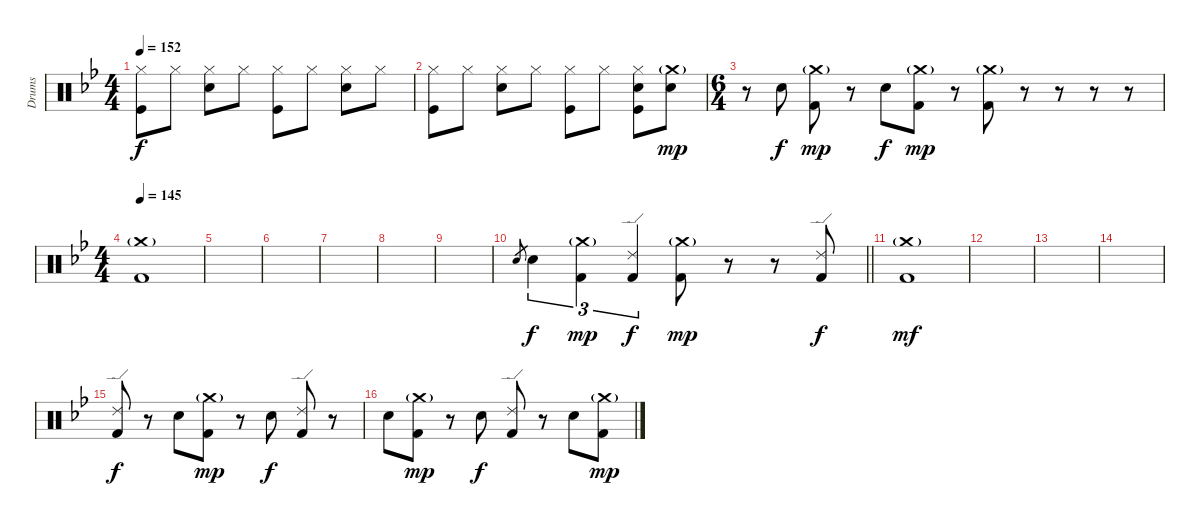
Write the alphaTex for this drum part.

\track ("Drums" "Drums") {instrument percussion}
\staff {score}
\articulation defaults
\ts (4 4)
\tempo 152
\clef neutral
\ks bb
("Hi-Hat (closed)" "Kick (hit)").8{dy f} "Hi-Hat (closed)".8 ("Hi-Hat (closed)" "Electric Snare (hit)").8 "Hi-Hat (closed)".8 ("Hi-Hat (closed)" "Kick (hit)").8 "Hi-Hat (closed)".8 ("Hi-Hat (closed)" "Electric Snare (hit)").8 "Hi-Hat (closed)".8 |
("Hi-Hat (closed)" "Kick (hit)").8 "Hi-Hat (closed)".8 ("Hi-Hat (closed)" "Electric Snare (hit)").8 "Hi-Hat (closed)".8 ("Hi-Hat (closed)" "Kick (hit)").8 "Hi-Hat (closed)".8 ("Hi-Hat (closed)" "Kick (hit)" "Electric Snare (hit)").8 ("Crash medium (hit)"{g} "Electric Snare (hit)").8{dy mp} |
\ts (6 4)
r.8 "Electric Snare (hit)".8{dy f} ("Crash medium (hit)"{g} "Kick (hit) 2").8{dy mp} r.8 "Electric Snare (hit)".8{dy f} ("Crash medium (hit)"{g} "Kick (hit) 2").8{dy mp} r.8 ("Crash medium (hit)"{g} "Kick (hit) 2").8 r.8 r.8 r.8 r.8 |
\ts (4 4)
\tempo 145
("Crash medium (hit)"{g} "Kick (hit) 2").1 |
|
|
|
|
|
\barLineRight lightlight "Electric Snare (hit)".8{gr} "Electric Snare (hit)".4{tu (3 2) dy f}
("Crash medium (hit)"{g} "Kick (hit) 2").4{tu (3 2) dy mp} ("Ride (edge) 2" "Kick (hit) 2").4{tu (3 2) dy f} ("Crash medium (hit)"{g} "Kick (hit) 2").8{dy mp} r.8 r.8 ("Ride (edge) 2" "Kick (hit) 2").8{dy f} |
("Crash medium (hit)"{g} "Kick (hit) 2").1{dy mf} |
|
|
|
("Ride (edge) 2" "Kick (hit) 2").8{dy f} r.8 "Electric Snare (hit)".8 ("Crash medium (hit)"{g} "Kick (hit) 2").8{dy mp} r.8 "Electric Snare (hit)".8{dy f} ("Ride (edge) 2" "Kick (hit) 2").8 r.8 |
"Electric Snare (hit)".8 ("Crash medium (hit)"{g} "Kick (hit) 2").8{dy mp} r.8 "Electric Snare (hit)".8{dy f} ("Ride (edge) 2" "Kick (hit) 2").8 r.8 "Electric Snare (hit)".8 ("Crash medium (hit)"{g} "Kick (hit) 2").8{dy mp}
